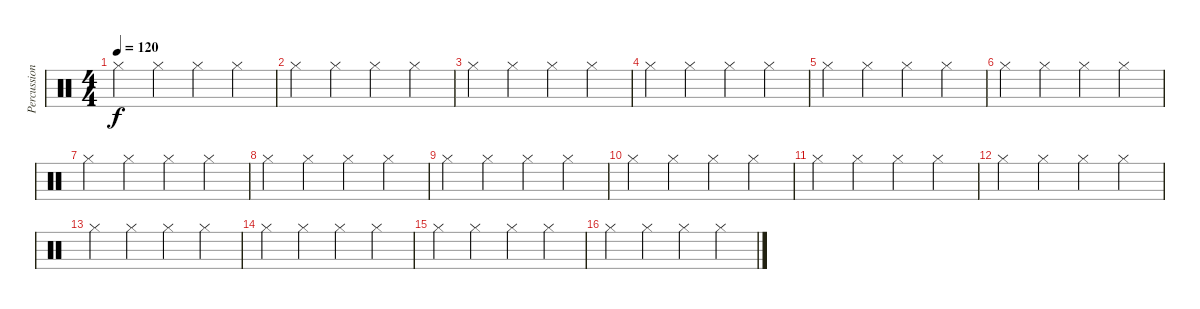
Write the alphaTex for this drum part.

\track ("Percussion" "Percussion") {instrument percussion}
\staff {score}
\articulation defaults
\ts (4 4)
\tempo 120
\clef neutral
\ks c "Hi-Hat (closed)".4{dy f} "Hi-Hat (closed)".4 "Hi-Hat (closed)".4 "Hi-Hat (closed)".4
|
"Hi-Hat (closed)".4 "Hi-Hat (closed)".4 "Hi-Hat (closed)".4 "Hi-Hat (closed)".4 |
"Hi-Hat (closed)".4 "Hi-Hat (closed)".4 "Hi-Hat (closed)".4 "Hi-Hat (closed)".4 |
"Hi-Hat (closed)".4 "Hi-Hat (closed)".4 "Hi-Hat (closed)".4 "Hi-Hat (closed)".4 |
"Hi-Hat (closed)".4 "Hi-Hat (closed)".4 "Hi-Hat (closed)".4 "Hi-Hat (closed)".4 |
"Hi-Hat (closed)".4 "Hi-Hat (closed)".4 "Hi-Hat (closed)".4 "Hi-Hat (closed)".4 |
"Hi-Hat (closed)".4 "Hi-Hat (closed)".4 "Hi-Hat (closed)".4 "Hi-Hat (closed)".4 |
"Hi-Hat (closed)".4 "Hi-Hat (closed)".4 "Hi-Hat (closed)".4 "Hi-Hat (closed)".4 |
"Hi-Hat (closed)".4 "Hi-Hat (closed)".4 "Hi-Hat (closed)".4 "Hi-Hat (closed)".4 |
"Hi-Hat (closed)".4 "Hi-Hat (closed)".4 "Hi-Hat (closed)".4 "Hi-Hat (closed)".4 |
"Hi-Hat (closed)".4 "Hi-Hat (closed)".4 "Hi-Hat (closed)".4 "Hi-Hat (closed)".4 |
"Hi-Hat (closed)".4 "Hi-Hat (closed)".4 "Hi-Hat (closed)".4 "Hi-Hat (closed)".4 |
"Hi-Hat (closed)".4 "Hi-Hat (closed)".4 "Hi-Hat (closed)".4 "Hi-Hat (closed)".4 |
"Hi-Hat (closed)".4 "Hi-Hat (closed)".4 "Hi-Hat (closed)".4 "Hi-Hat (closed)".4 |
"Hi-Hat (closed)".4 "Hi-Hat (closed)".4 "Hi-Hat (closed)".4 "Hi-Hat (closed)".4 |
"Hi-Hat (closed)".4 "Hi-Hat (closed)".4 "Hi-Hat (closed)".4 "Hi-Hat (closed)".4
